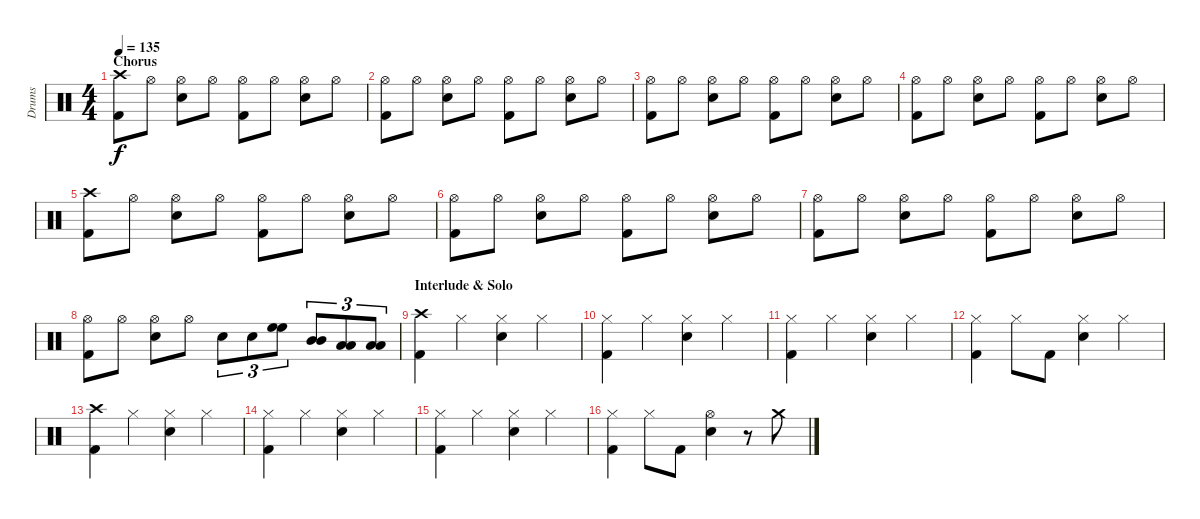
\track ("Drums" "Drums") {instrument percussion}
\staff {score}
\articulation defaults
\ts (4 4)
\section ("" "Chorus")
\tempo 135
\clef neutral
\ks c
("Crash high (hit)" "Kick (hit) 2").8{dy f} "Hi-Hat (open)".8 ("Hi-Hat (open)" "Snare (hit) 2").8 "Hi-Hat (open)".8 ("Hi-Hat (open)" "Kick (hit) 2").8 "Hi-Hat (open)".8 ("Hi-Hat (open)" "Snare (hit) 2").8 "Hi-Hat (open)".8 |
("Hi-Hat (open)" "Kick (hit) 2").8 "Hi-Hat (open)".8 ("Hi-Hat (open)" "Snare (hit) 2").8 "Hi-Hat (open)".8 ("Hi-Hat (open)" "Kick (hit) 2").8 "Hi-Hat (open)".8 ("Hi-Hat (open)" "Snare (hit) 2").8 "Hi-Hat (open)".8 |
("Hi-Hat (open)" "Kick (hit) 2").8 "Hi-Hat (open)".8 ("Hi-Hat (open)" "Snare (hit) 2").8 "Hi-Hat (open)".8 ("Hi-Hat (open)" "Kick (hit) 2").8 "Hi-Hat (open)".8 ("Hi-Hat (open)" "Snare (hit) 2").8 "Hi-Hat (open)".8 |
("Hi-Hat (open)" "Kick (hit) 2").8 "Hi-Hat (open)".8 ("Hi-Hat (open)" "Snare (hit) 2").8 "Hi-Hat (open)".8 ("Hi-Hat (open)" "Kick (hit) 2").8 "Hi-Hat (open)".8 ("Hi-Hat (open)" "Snare (hit) 2").8 "Hi-Hat (open)".8 |
("Crash high (hit)" "Kick (hit) 2").8 "Hi-Hat (open)".8 ("Hi-Hat (open)" "Snare (hit) 2").8 "Hi-Hat (open)".8 ("Hi-Hat (open)" "Kick (hit) 2").8 "Hi-Hat (open)".8 ("Hi-Hat (open)" "Snare (hit) 2").8 "Hi-Hat (open)".8 |
("Hi-Hat (open)" "Kick (hit) 2").8 "Hi-Hat (open)".8 ("Hi-Hat (open)" "Snare (hit) 2").8 "Hi-Hat (open)".8 ("Hi-Hat (open)" "Kick (hit) 2").8 "Hi-Hat (open)".8 ("Hi-Hat (open)" "Snare (hit) 2").8 "Hi-Hat (open)".8 |
("Hi-Hat (open)" "Kick (hit) 2").8 "Hi-Hat (open)".8 ("Hi-Hat (open)" "Snare (hit) 2").8 "Hi-Hat (open)".8 ("Hi-Hat (open)" "Kick (hit) 2").8 "Hi-Hat (open)".8 ("Hi-Hat (open)" "Snare (hit) 2").8 "Hi-Hat (open)".8 |
("Hi-Hat (open)" "Kick (hit) 2").8 "Hi-Hat (open)".8 ("Hi-Hat (open)" "Snare (hit) 2").8 "Hi-Hat (open)".8 "Snare (hit) 2".8{tu (3 2)} "Snare (hit) 2".8{tu (3 2)} ("High Floor Tom (hit)" "High Floor Tom (hit)").8{tu (3 2)} ("Mid Tom (hit)" "Mid Tom (hit)").8{tu (3 2)} ("Low Tom (hit)" "Low Tom (hit)").8{tu (3 2)} ("Low Floor Tom (hit)" "Low Floor Tom (hit)").8{tu (3 2)} |
\section ("" "Interlude & Solo")
("Crash high (hit)" "Kick (hit) 2").4 "Hi-Hat (closed)".4 ("Hi-Hat (closed)" "Snare (hit) 2").4 "Hi-Hat (closed)".4 |
("Hi-Hat (closed)" "Kick (hit) 2").4 "Hi-Hat (closed)".4 ("Hi-Hat (closed)" "Snare (hit) 2").4 "Hi-Hat (closed)".4 |
("Hi-Hat (closed)" "Kick (hit) 2").4 "Hi-Hat (closed)".4 ("Hi-Hat (closed)" "Snare (hit) 2").4 "Hi-Hat (closed)".4 |
("Hi-Hat (closed)" "Kick (hit) 2").4 "Hi-Hat (closed)".8 "Kick (hit) 2".8 ("Hi-Hat (closed)" "Snare (hit) 2").4 "Hi-Hat (closed)".4 |
("Crash high (hit)" "Kick (hit) 2").4 "Hi-Hat (closed)".4 ("Hi-Hat (closed)" "Snare (hit) 2").4 "Hi-Hat (closed)".4 |
("Hi-Hat (closed)" "Kick (hit) 2").4 "Hi-Hat (closed)".4 ("Hi-Hat (closed)" "Snare (hit) 2").4 "Hi-Hat (closed)".4 |
("Hi-Hat (closed)" "Kick (hit) 2").4 "Hi-Hat (closed)".4 ("Hi-Hat (closed)" "Snare (hit) 2").4 "Hi-Hat (closed)".4 |
("Hi-Hat (closed)" "Kick (hit) 2").4 "Hi-Hat (closed)".8 "Kick (hit) 2".8 ("Hi-Hat (open)" "Snare (hit) 2").4 r.8 "Crash medium (hit)".8
